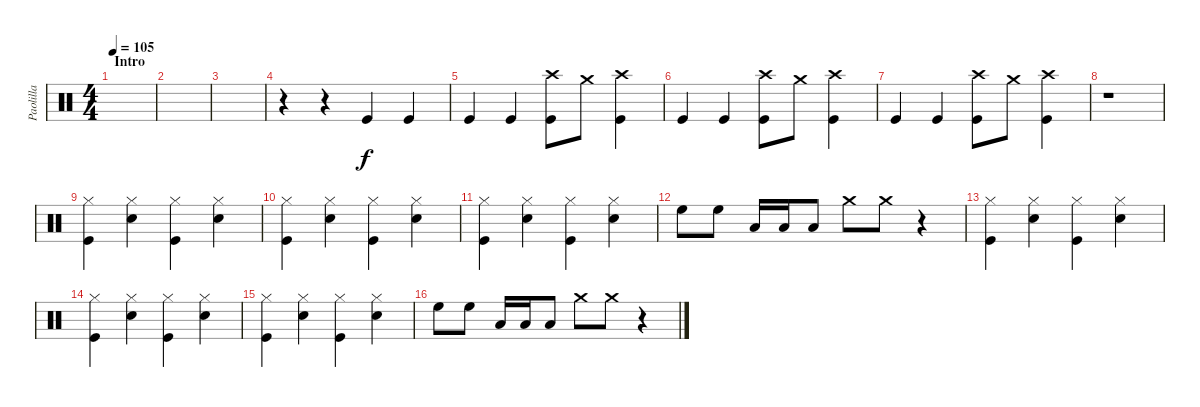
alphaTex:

\track ("Paolilla" "Paolilla") {instrument percussion}
\staff {score}
\articulation defaults
\ts (4 4)
\section ("" "Intro")
\tempo 105
\clef neutral
\ks c
|
|
|
r.4 r.4 "Kick (hit)".4 "Kick (hit)".4 |
"Kick (hit)".4 "Kick (hit)".4 ("Crash high (hit)" "Kick (hit)").8 "Crash medium (hit)".8 ("Crash high (hit)" "Kick (hit)").4 |
"Kick (hit)".4 "Kick (hit)".4 ("Crash high (hit)" "Kick (hit)").8 "Crash medium (hit)".8 ("Crash high (hit)" "Kick (hit)").4 |
"Kick (hit)".4 "Kick (hit)".4 ("Crash high (hit)" "Kick (hit)").8 "Crash medium (hit)".8 ("Crash high (hit)" "Kick (hit)").4 |
r.1 |
("Hi-Hat (closed)" "Kick (hit)").4 ("Hi-Hat (closed)" "Snare (hit) 2").4 ("Hi-Hat (closed)" "Kick (hit)").4 ("Hi-Hat (closed)" "Snare (hit) 2").4 |
("Hi-Hat (closed)" "Kick (hit)").4 ("Hi-Hat (closed)" "Snare (hit) 2").4 ("Hi-Hat (closed)" "Kick (hit)").4 ("Hi-Hat (closed)" "Snare (hit) 2").4 |
("Hi-Hat (closed)" "Kick (hit)").4 ("Hi-Hat (closed)" "Snare (hit) 2").4 ("Hi-Hat (closed)" "Kick (hit)").4 ("Hi-Hat (closed)" "Snare (hit) 2").4 |
"High Floor Tom (hit)".8 "High Floor Tom (hit)".8 "Low Tom (hit)".16 "Low Tom (hit)".16 "Low Tom (hit)".8 "Crash medium (hit)".8 "Crash medium (hit)".8 r.4 |
("Hi-Hat (closed)" "Kick (hit)").4 ("Hi-Hat (closed)" "Snare (hit) 2").4 ("Hi-Hat (closed)" "Kick (hit)").4 ("Hi-Hat (closed)" "Snare (hit) 2").4 |
("Hi-Hat (closed)" "Kick (hit)").4 ("Hi-Hat (closed)" "Snare (hit) 2").4 ("Hi-Hat (closed)" "Kick (hit)").4 ("Hi-Hat (closed)" "Snare (hit) 2").4 |
("Hi-Hat (closed)" "Kick (hit)").4 ("Hi-Hat (closed)" "Snare (hit) 2").4 ("Hi-Hat (closed)" "Kick (hit)").4 ("Hi-Hat (closed)" "Snare (hit) 2").4 |
"High Floor Tom (hit)".8 "High Floor Tom (hit)".8 "Low Tom (hit)".16 "Low Tom (hit)".16 "Low Tom (hit)".8 "Crash medium (hit)".8 "Crash medium (hit)".8 r.4
